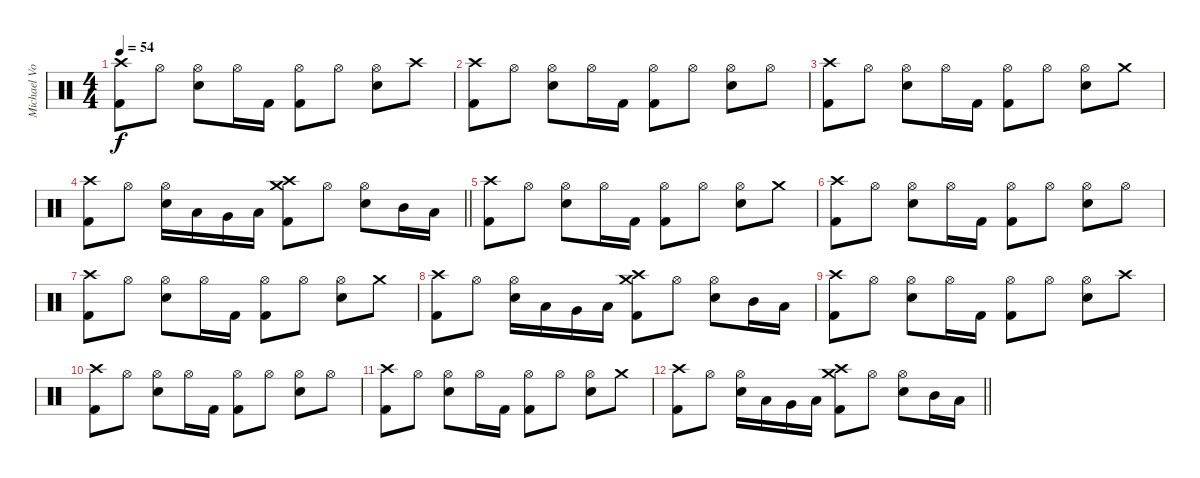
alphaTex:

\track ("Michael Von Knorring" "Michael Vo") {instrument percussion}
\staff {score}
\articulation defaults
\ts (4 4)
\tempo 54
\clef neutral
\ks c
("Crash high (hit)" "Kick (hit) 2").8{dy f} "Hi-Hat (open)".8 ("Hi-Hat (open)" "Electric Snare (hit)").8 "Hi-Hat (open)".16 "Kick (hit) 2".16 ("Hi-Hat (open)" "Kick (hit) 2").8 "Hi-Hat (open)".8 ("Hi-Hat (open)" "Electric Snare (hit)").8 "Crash high (hit)".8 |
("Crash high (hit)" "Kick (hit) 2").8 "Hi-Hat (open)".8 ("Hi-Hat (open)" "Electric Snare (hit)").8 "Hi-Hat (open)".16 "Kick (hit) 2".16 ("Hi-Hat (open)" "Kick (hit) 2").8 "Hi-Hat (open)".8 ("Hi-Hat (open)" "Electric Snare (hit)").8 "Hi-Hat (open)".8 |
("Crash high (hit)" "Kick (hit) 2").8 "Hi-Hat (open)".8 ("Hi-Hat (open)" "Electric Snare (hit)").8 "Hi-Hat (open)".16 "Kick (hit) 2".16 ("Hi-Hat (open)" "Kick (hit) 2").8 "Hi-Hat (open)".8 ("Hi-Hat (open)" "Electric Snare (hit)").8 "Crash medium (hit)".8 |
\barLineRight lightlight
("Crash high (hit)" "Kick (hit) 2").8 "Hi-Hat (open)".8 ("Hi-Hat (open)" "Electric Snare (hit)").16 "Low Tom (hit)".16 "Very Low Tom (hit)".16 "Low Floor Tom (hit)".16 ("Crash medium (hit)" "Crash high (hit)" "Kick (hit) 2").8 "Hi-Hat (open)".8 ("Hi-Hat (open)" "Electric Snare (hit)").8 "Mid Tom (hit)".16 "Low Tom (hit)".16 |
("Crash high (hit)" "Kick (hit) 2").8 "Hi-Hat (open)".8 ("Hi-Hat (open)" "Electric Snare (hit)").8 "Hi-Hat (open)".16 "Kick (hit) 2".16 ("Hi-Hat (open)" "Kick (hit) 2").8 "Hi-Hat (open)".8 ("Hi-Hat (open)" "Electric Snare (hit)").8 "Crash medium (hit)".8 |
("Crash high (hit)" "Kick (hit) 2").8 "Hi-Hat (open)".8 ("Hi-Hat (open)" "Electric Snare (hit)").8 "Hi-Hat (open)".16 "Kick (hit) 2".16 ("Hi-Hat (open)" "Kick (hit) 2").8 "Hi-Hat (open)".8 ("Hi-Hat (open)" "Electric Snare (hit)").8 "Hi-Hat (open)".8 |
("Crash high (hit)" "Kick (hit) 2").8 "Hi-Hat (open)".8 ("Hi-Hat (open)" "Electric Snare (hit)").8 "Hi-Hat (open)".16 "Kick (hit) 2".16 ("Hi-Hat (open)" "Kick (hit) 2").8 "Hi-Hat (open)".8 ("Hi-Hat (open)" "Electric Snare (hit)").8 "Crash medium (hit)".8 |
("Crash high (hit)" "Kick (hit) 2").8 "Hi-Hat (open)".8 ("Hi-Hat (open)" "Electric Snare (hit)").16 "Low Tom (hit)".16 "Very Low Tom (hit)".16 "Low Floor Tom (hit)".16 ("Crash medium (hit)" "Crash high (hit)" "Kick (hit) 2").8 "Hi-Hat (open)".8 ("Hi-Hat (open)" "Electric Snare (hit)").8 "Mid Tom (hit)".16 "Low Tom (hit)".16 |
("Crash high (hit)" "Kick (hit) 2").8 "Hi-Hat (open)".8 ("Hi-Hat (open)" "Electric Snare (hit)").8 "Hi-Hat (open)".16 "Kick (hit) 2".16 ("Hi-Hat (open)" "Kick (hit) 2").8 "Hi-Hat (open)".8 ("Hi-Hat (open)" "Electric Snare (hit)").8 "Crash high (hit)".8 |
("Crash high (hit)" "Kick (hit) 2").8 "Hi-Hat (open)".8 ("Hi-Hat (open)" "Electric Snare (hit)").8 "Hi-Hat (open)".16 "Kick (hit) 2".16 ("Hi-Hat (open)" "Kick (hit) 2").8 "Hi-Hat (open)".8 ("Hi-Hat (open)" "Electric Snare (hit)").8 "Hi-Hat (open)".8 |
("Crash high (hit)" "Kick (hit) 2").8 "Hi-Hat (open)".8 ("Hi-Hat (open)" "Electric Snare (hit)").8 "Hi-Hat (open)".16 "Kick (hit) 2".16 ("Hi-Hat (open)" "Kick (hit) 2").8 "Hi-Hat (open)".8 ("Hi-Hat (open)" "Electric Snare (hit)").8 "Crash medium (hit)".8 |
\barLineRight lightlight
("Crash high (hit)" "Kick (hit) 2").8 "Hi-Hat (open)".8 ("Hi-Hat (open)" "Electric Snare (hit)").16 "Low Tom (hit)".16 "Very Low Tom (hit)".16 "Low Floor Tom (hit)".16 ("Crash medium (hit)" "Crash high (hit)" "Kick (hit) 2").8 "Hi-Hat (open)".8 ("Hi-Hat (open)" "Electric Snare (hit)").8 "Mid Tom (hit)".16 "Low Tom (hit)".16
